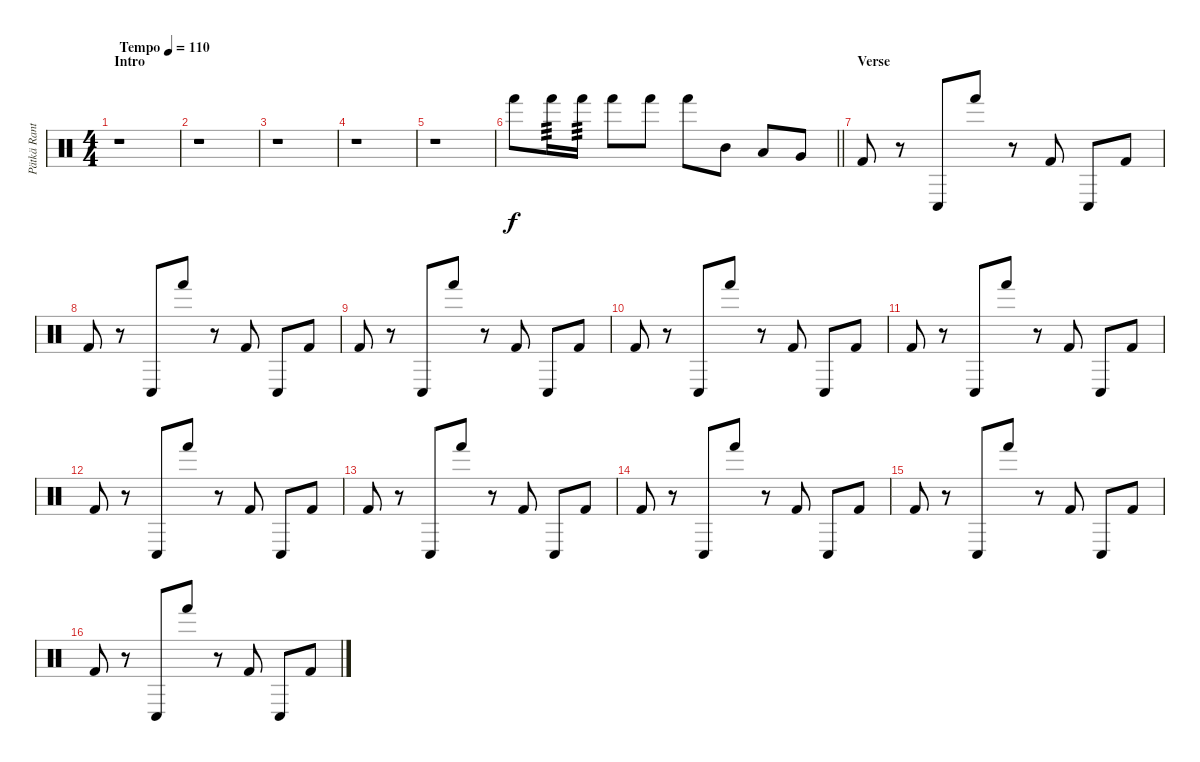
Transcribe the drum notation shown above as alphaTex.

\track ("Pätkä Rantala (Drums)" "Pätkä Rant") {instrument percussion}
\staff {score}
\articulation defaults
\ts (4 4)
\section ("" "Intro")
\tempo (110 "Tempo")
\clef neutral
\ks c
r.1{dy f} |
r.1 |
r.1 |
r.1 |
r.1 |
\barLineRight lightlight "Hand (hit)".8 "Hand (hit)".16{tp 3} "Hand (hit)".16{tp 3} "Hand (hit)".8 "Hand (hit)".8 "Hand (hit)".8 "Mid Tom (hit)".8 "Low Tom (hit)".8 "Very Low Tom (hit)".8
|
\section ("" "Verse")
"Kick (hit) 2".8 r.8 "Conga low (hit)".8 "Hand (hit)".8 r.8 "Kick (hit) 2".8 "Conga low (hit)".8 "Kick (hit) 2".8 |
"Kick (hit) 2".8 r.8 "Conga low (hit)".8 "Hand (hit)".8 r.8 "Kick (hit) 2".8 "Conga low (hit)".8 "Kick (hit) 2".8 |
"Kick (hit) 2".8 r.8 "Conga low (hit)".8 "Hand (hit)".8 r.8 "Kick (hit) 2".8 "Conga low (hit)".8 "Kick (hit) 2".8 |
"Kick (hit) 2".8 r.8 "Conga low (hit)".8 "Hand (hit)".8 r.8 "Kick (hit) 2".8 "Conga low (hit)".8 "Kick (hit) 2".8 |
"Kick (hit) 2".8 r.8 "Conga low (hit)".8 "Hand (hit)".8 r.8 "Kick (hit) 2".8 "Conga low (hit)".8 "Kick (hit) 2".8 |
"Kick (hit) 2".8 r.8 "Conga low (hit)".8 "Hand (hit)".8 r.8 "Kick (hit) 2".8 "Conga low (hit)".8 "Kick (hit) 2".8 |
"Kick (hit) 2".8 r.8 "Conga low (hit)".8 "Hand (hit)".8 r.8 "Kick (hit) 2".8 "Conga low (hit)".8 "Kick (hit) 2".8 |
"Kick (hit) 2".8 r.8 "Conga low (hit)".8 "Hand (hit)".8 r.8 "Kick (hit) 2".8 "Conga low (hit)".8 "Kick (hit) 2".8 |
"Kick (hit) 2".8 r.8 "Conga low (hit)".8 "Hand (hit)".8 r.8 "Kick (hit) 2".8 "Conga low (hit)".8 "Kick (hit) 2".8 |
"Kick (hit) 2".8 r.8 "Conga low (hit)".8 "Hand (hit)".8 r.8 "Kick (hit) 2".8 "Conga low (hit)".8 "Kick (hit) 2".8
